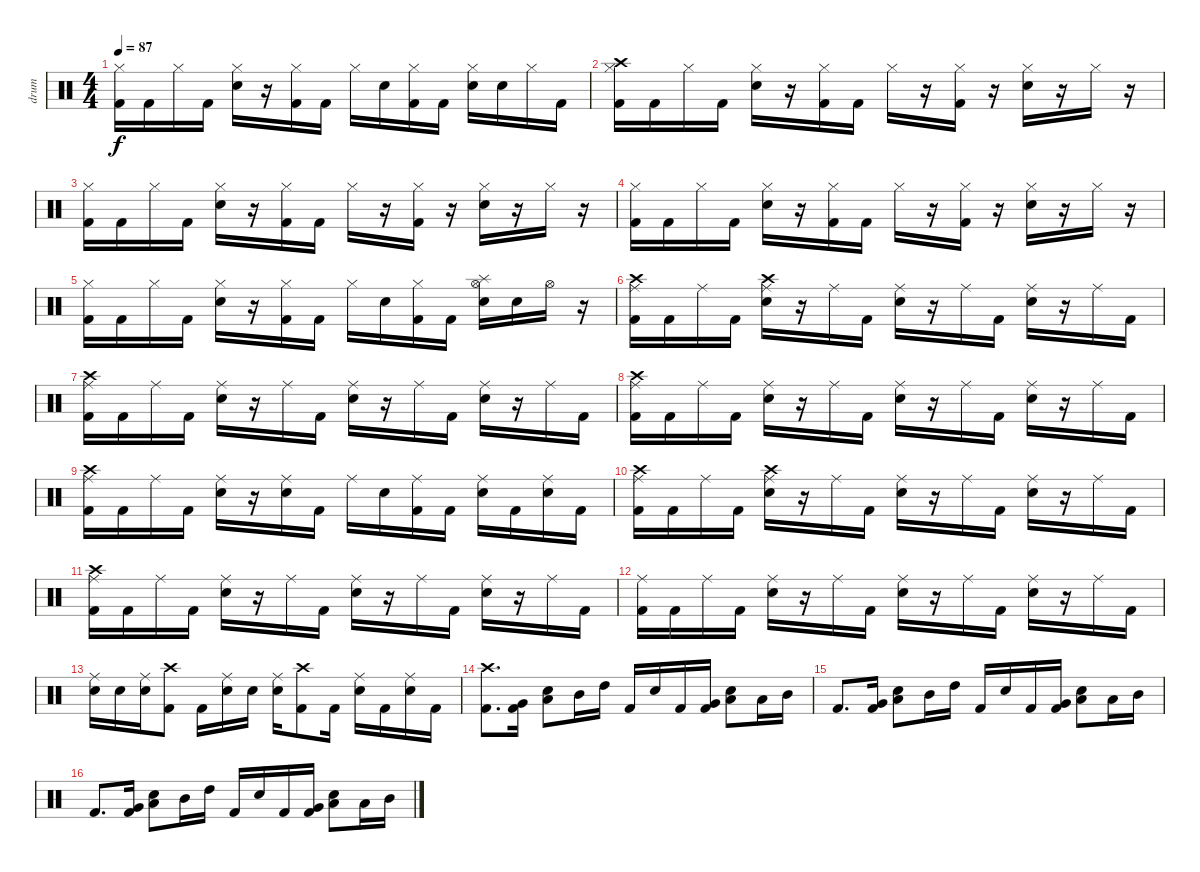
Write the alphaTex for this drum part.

\track ("drum" "drum") {instrument percussion}
\staff {score}
\articulation defaults
\ts (4 4)
\tempo 87
\clef neutral
\ks c
("Hi-Hat (closed)" "Kick (hit) 2").16{dy f} "Kick (hit) 2".16 "Hi-Hat (closed)".16 "Kick (hit) 2".16 ("Hi-Hat (closed)" "Electric Snare (hit)").16 r.16 ("Hi-Hat (closed)" "Kick (hit) 2").16 "Kick (hit) 2".16 "Hi-Hat (closed)".16 "Electric Snare (hit)".16 ("Hi-Hat (closed)" "Kick (hit) 2").16 "Kick (hit) 2".16 ("Hi-Hat (closed)" "Electric Snare (hit)").16 "Electric Snare (hit)".16 "Hi-Hat (closed)".16 "Kick (hit) 2".16 |
("Crash high (hit)" "Hi-Hat (closed)" "Kick (hit) 2").16 "Kick (hit) 2".16 "Hi-Hat (closed)".16 "Kick (hit) 2".16 ("Hi-Hat (closed)" "Electric Snare (hit)").16 r.16 ("Hi-Hat (closed)" "Kick (hit) 2").16 "Kick (hit) 2".16 "Hi-Hat (closed)".16 r.16 ("Hi-Hat (closed)" "Kick (hit) 2").16 r.16 ("Hi-Hat (closed)" "Electric Snare (hit)").16 r.16 "Hi-Hat (closed)".16 r.16 |
("Hi-Hat (closed)" "Kick (hit) 2").16 "Kick (hit) 2".16 "Hi-Hat (closed)".16 "Kick (hit) 2".16 ("Hi-Hat (closed)" "Electric Snare (hit)").16 r.16 ("Hi-Hat (closed)" "Kick (hit) 2").16 "Kick (hit) 2".16 "Hi-Hat (closed)".16 r.16 ("Hi-Hat (closed)" "Kick (hit) 2").16 r.16 ("Hi-Hat (closed)" "Electric Snare (hit)").16 r.16 "Hi-Hat (closed)".16 r.16 |
("Hi-Hat (closed)" "Kick (hit) 2").16 "Kick (hit) 2".16 "Hi-Hat (closed)".16 "Kick (hit) 2".16 ("Hi-Hat (closed)" "Electric Snare (hit)").16 r.16 ("Hi-Hat (closed)" "Kick (hit) 2").16 "Kick (hit) 2".16 "Hi-Hat (closed)".16 r.16 ("Hi-Hat (closed)" "Kick (hit) 2").16 r.16 ("Hi-Hat (closed)" "Electric Snare (hit)").16 r.16 "Hi-Hat (closed)".16 r.16 |
("Hi-Hat (closed)" "Kick (hit) 2").16 "Kick (hit) 2".16 "Hi-Hat (closed)".16 "Kick (hit) 2".16 ("Hi-Hat (closed)" "Electric Snare (hit)").16 r.16 ("Hi-Hat (closed)" "Kick (hit) 2").16 "Kick (hit) 2".16 "Hi-Hat (closed)".16 "Electric Snare (hit)".16 ("Hi-Hat (closed)" "Kick (hit) 2").16 "Kick (hit) 2".16 ("Splash (hit)" "Hi-Hat (open)" "Electric Snare (hit)").16 "Electric Snare (hit)".16 "Hi-Hat (open)".16 r.16 |
("Crash high (hit)" "Ride (middle)" "Kick (hit) 2").16 "Kick (hit) 2".16 "Ride (middle)".16 "Kick (hit) 2".16 ("Crash high (hit)" "Ride (middle)" "Electric Snare (hit)").16 r.16 "Ride (middle)".16 "Kick (hit) 2".16 ("Ride (middle)" "Electric Snare (hit)").16 r.16 "Ride (middle)".16 "Kick (hit) 2".16 ("Ride (middle)" "Electric Snare (hit)").16 r.16 "Ride (middle)".16 "Kick (hit) 2".16 |
("Crash high (hit)" "Ride (middle)" "Kick (hit) 2").16 "Kick (hit) 2".16 "Ride (middle)".16 "Kick (hit) 2".16 ("Ride (middle)" "Electric Snare (hit)").16 r.16 "Ride (middle)".16 "Kick (hit) 2".16 ("Ride (middle)" "Electric Snare (hit)").16 r.16 "Ride (middle)".16 "Kick (hit) 2".16 ("Ride (middle)" "Electric Snare (hit)").16 r.16 "Ride (middle)".16 "Kick (hit) 2".16 |
("Crash high (hit)" "Ride (middle)" "Kick (hit) 2").16 "Kick (hit) 2".16 "Ride (middle)".16 "Kick (hit) 2".16 ("Ride (middle)" "Electric Snare (hit)").16 r.16 "Ride (middle)".16 "Kick (hit) 2".16 ("Ride (middle)" "Electric Snare (hit)").16 r.16 "Ride (middle)".16 "Kick (hit) 2".16 ("Ride (middle)" "Electric Snare (hit)").16 r.16 "Ride (middle)".16 "Kick (hit) 2".16 |
("Crash high (hit)" "Ride (middle)" "Kick (hit) 2").16 "Kick (hit) 2".16 "Ride (middle)".16 "Kick (hit) 2".16 ("Ride (middle)" "Electric Snare (hit)").16 r.16 ("Ride (middle)" "Electric Snare (hit)").16 "Kick (hit) 2".16 "Ride (middle)".16 "Electric Snare (hit)".16 ("Ride (middle)" "Kick (hit) 2").16 "Kick (hit) 2".16 ("Ride (middle)" "Electric Snare (hit)").16 "Kick (hit) 2".16 ("Ride (middle)" "Electric Snare (hit)").16 "Kick (hit) 2".16 |
("Crash high (hit)" "Ride (middle)" "Kick (hit) 2").16 "Kick (hit) 2".16 "Ride (middle)".16 "Kick (hit) 2".16 ("Crash high (hit)" "Ride (middle)" "Electric Snare (hit)").16 r.16 "Ride (middle)".16 "Kick (hit) 2".16 ("Ride (middle)" "Electric Snare (hit)").16 r.16 "Ride (middle)".16 "Kick (hit) 2".16 ("Ride (middle)" "Electric Snare (hit)").16 r.16 "Ride (middle)".16 "Kick (hit) 2".16 |
("Crash high (hit)" "Ride (middle)" "Kick (hit) 2").16 "Kick (hit) 2".16 "Ride (middle)".16 "Kick (hit) 2".16 ("Ride (middle)" "Electric Snare (hit)").16 r.16 "Ride (middle)".16 "Kick (hit) 2".16 ("Ride (middle)" "Electric Snare (hit)").16 r.16 "Ride (middle)".16 "Kick (hit) 2".16 ("Ride (middle)" "Electric Snare (hit)").16 r.16 "Ride (middle)".16 "Kick (hit) 2".16 |
("Ride (middle)" "Kick (hit) 2").16 "Kick (hit) 2".16 "Ride (middle)".16 "Kick (hit) 2".16 ("Ride (middle)" "Electric Snare (hit)").16 r.16 "Ride (middle)".16 "Kick (hit) 2".16 ("Ride (middle)" "Electric Snare (hit)").16 r.16 "Ride (middle)".16 "Kick (hit) 2".16 ("Ride (middle)" "Electric Snare (hit)").16 r.16 "Ride (middle)".16 "Kick (hit) 2".16 |
("Ride (middle)" "Electric Snare (hit)").16 "Electric Snare (hit)".16 ("Ride (middle)" "Electric Snare (hit)").16 ("Crash high (hit)" "Kick (hit) 2").8 "Kick (hit) 2".16 ("Ride (middle)" "Electric Snare (hit)").16 "Electric Snare (hit)".16 ("Ride (middle)" "Electric Snare (hit)").16 ("Crash high (hit)" "Kick (hit) 2").8 "Kick (hit) 2".16 ("Ride (middle)" "Electric Snare (hit)").16 "Kick (hit) 2".16 ("Ride (middle)" "Electric Snare (hit)").16 "Kick (hit) 2".16 |
("Crash high (hit)" "Kick (hit) 2").8{d} ("Very Low Tom (hit)" "Kick (hit) 2").16 ("Low Floor Tom (hit)" "Electric Snare (hit)").8 "Mid Tom (hit)".16 "High Tom (hit)".16 "Kick (hit) 2".16 "Electric Snare (hit)".16 "Kick (hit) 2".16 ("Very Low Tom (hit)" "Kick (hit) 2").16 ("Low Floor Tom (hit)" "Electric Snare (hit)").8 "Low Tom (hit)".16 "Mid Tom (hit)".16 |
"Kick (hit) 2".8{d} ("Very Low Tom (hit)" "Kick (hit) 2").16 ("Low Floor Tom (hit)" "Electric Snare (hit)").8 "Mid Tom (hit)".16 "High Tom (hit)".16 "Kick (hit) 2".16 "Electric Snare (hit)".16 "Kick (hit) 2".16 ("Very Low Tom (hit)" "Kick (hit) 2").16 ("Low Floor Tom (hit)" "Electric Snare (hit)").8 "Low Tom (hit)".16 "Mid Tom (hit)".16 |
"Kick (hit) 2".8{d} ("Very Low Tom (hit)" "Kick (hit) 2").16 ("Low Floor Tom (hit)" "Electric Snare (hit)").8 "Mid Tom (hit)".16 "High Tom (hit)".16 "Kick (hit) 2".16 "Electric Snare (hit)".16 "Kick (hit) 2".16 ("Very Low Tom (hit)" "Kick (hit) 2").16 ("Low Floor Tom (hit)" "Electric Snare (hit)").8 "Low Tom (hit)".16 "Mid Tom (hit)".16
